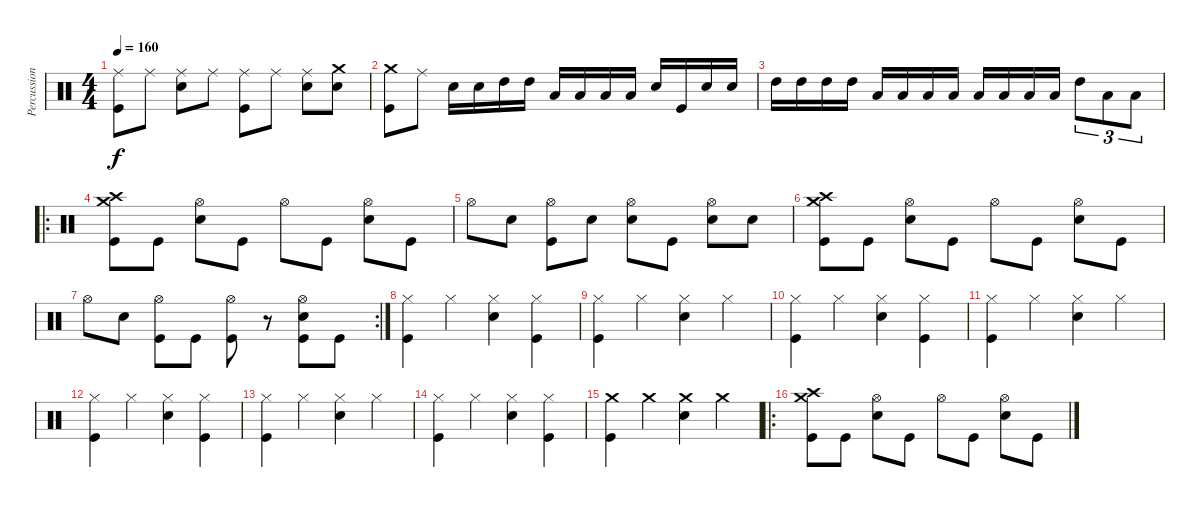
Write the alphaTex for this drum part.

\track ("Percussion" "Percussion") {instrument percussion}
\staff {score}
\articulation defaults
\ts (4 4)
\tempo 160
\clef neutral
\ks c
("Ride (middle)" "Kick (hit)").8{dy f} "Ride (middle)".8 ("Ride (middle)" "Snare (hit) 2").8 "Ride (middle)".8 ("Ride (middle)" "Kick (hit)").8 "Ride (middle)".8 ("Ride (middle)" "Snare (hit) 2").8 ("Crash medium (hit)" "Snare (hit) 2").8 |
("Crash medium (hit)" "Kick (hit)").8 "Ride (middle)".8 "Snare (hit) 2".16 "Snare (hit) 2".16 "High Tom (hit)".16 "High Tom (hit)".16 "Low Floor Tom (hit)".16 "Low Floor Tom (hit)".16 "Low Tom (hit)".16 "Low Tom (hit)".16 "Snare (hit) 2".16 "Kick (hit)".16 "Snare (hit) 2".16 "Snare (hit) 2".16 |
"High Tom (hit)".16 "High Tom (hit)".16 "High Tom (hit)".16 "High Tom (hit)".16 "Low Tom (hit)".16 "Low Tom (hit)".16 "Low Tom (hit)".16 "Low Tom (hit)".16 "Low Floor Tom (hit)".16 "Low Floor Tom (hit)".16 "Low Floor Tom (hit)".16 "Low Floor Tom (hit)".16 "High Tom (hit)".8{tu (3 2)} "Low Tom (hit)".8{tu (3 2)} "Low Floor Tom (hit)".8{tu (3 2)} |
\ro
("Crash medium (hit)" "Crash high (hit)" "Kick (hit)").8 "Kick (hit)".8 ("Hi-Hat (open)" "Snare (hit) 2").8 "Kick (hit)".8 "Hi-Hat (open)".8 "Kick (hit)".8 ("Hi-Hat (open)" "Snare (hit) 2").8 "Kick (hit)".8 |
"Hi-Hat (open)".8 "Snare (hit) 2".8 ("Hi-Hat (open)" "Kick (hit)").8 "Snare (hit) 2".8 ("Hi-Hat (open)" "Snare (hit) 2").8 "Kick (hit)".8 ("Hi-Hat (open)" "Snare (hit) 2").8 "Snare (hit) 2".8 |
("Crash medium (hit)" "Crash high (hit)" "Kick (hit)").8 "Kick (hit)".8 ("Hi-Hat (open)" "Snare (hit) 2").8 "Kick (hit)".8 "Hi-Hat (open)".8 "Kick (hit)".8 ("Hi-Hat (open)" "Snare (hit) 2").8 "Kick (hit)".8 |
\rc 2 "Hi-Hat (open)".8 "Snare (hit) 2".8
("Hi-Hat (open)" "Kick (hit)").8 "Kick (hit)".8 ("Hi-Hat (open)" "Kick (hit)").8 r.8 ("Hi-Hat (open)" "Snare (hit) 2" "Kick (hit)").8 "Kick (hit)".8 |
("Hi-Hat (closed)" "Kick (hit)").4 "Hi-Hat (closed)".4 ("Hi-Hat (closed)" "Snare (hit) 2").4 ("Hi-Hat (closed)" "Kick (hit)").4 |
("Hi-Hat (closed)" "Kick (hit)").4 "Hi-Hat (closed)".4 ("Hi-Hat (closed)" "Snare (hit) 2").4 "Hi-Hat (closed)".4 |
("Hi-Hat (closed)" "Kick (hit)").4 "Hi-Hat (closed)".4 ("Hi-Hat (closed)" "Snare (hit) 2").4 ("Hi-Hat (closed)" "Kick (hit)").4 |
("Hi-Hat (closed)" "Kick (hit)").4 "Hi-Hat (closed)".4 ("Hi-Hat (closed)" "Snare (hit) 2").4 "Hi-Hat (closed)".4 |
("Hi-Hat (closed)" "Kick (hit)").4 "Hi-Hat (closed)".4 ("Hi-Hat (closed)" "Snare (hit) 2").4 ("Hi-Hat (closed)" "Kick (hit)").4 |
("Hi-Hat (closed)" "Kick (hit)").4 "Hi-Hat (closed)".4 ("Hi-Hat (closed)" "Snare (hit) 2").4 "Hi-Hat (closed)".4 |
("Hi-Hat (closed)" "Kick (hit)").4 "Hi-Hat (closed)".4 ("Hi-Hat (closed)" "Snare (hit) 2").4 ("Hi-Hat (closed)" "Kick (hit)").4 |
("Crash medium (hit)" "Kick (hit)").4 "Crash medium (hit)".4 ("Crash medium (hit)" "Snare (hit) 2").4 "Crash medium (hit)".4 |
\ro
("Crash medium (hit)" "Crash high (hit)" "Kick (hit)").8 "Kick (hit)".8 ("Hi-Hat (open)" "Snare (hit) 2").8 "Kick (hit)".8 "Hi-Hat (open)".8 "Kick (hit)".8 ("Hi-Hat (open)" "Snare (hit) 2").8 "Kick (hit)".8
